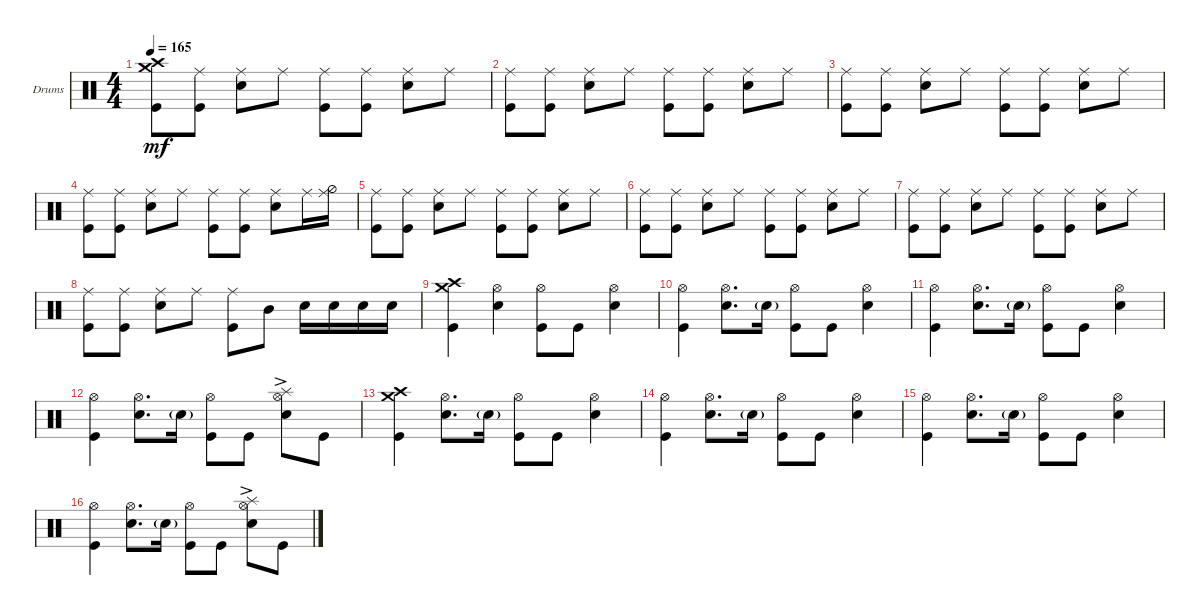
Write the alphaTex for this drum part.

\defaultSystemsLayout 4
\bracketExtendMode groupsimilarinstruments
\firstSystemTrackNameOrientation horizontal
\otherSystemsTrackNameOrientation horizontal
\track ("Drumkit" "Drums") {instrument percussion}
\staff {score}
\articulation defaults
\ts (4 4)
\tempo 165
\clef neutral
\ks c
("Kick (hit)" "Crash high (hit)" "Crash medium (hit)").8{dy mf} ("Kick (hit)" "Ride (middle)").8 ("Snare (hit) 2" "Ride (middle)").8 "Ride (middle)".8 ("Ride (middle)" "Kick (hit)").8 ("Ride (middle)" "Kick (hit)").8 ("Ride (middle)" "Snare (hit) 2").8 "Ride (middle)".8 |
("Ride (middle)" "Kick (hit)").8 ("Ride (middle)" "Kick (hit)").8 ("Ride (middle)" "Snare (hit) 2").8 "Ride (middle)".8 ("Ride (middle)" "Kick (hit)").8 ("Ride (middle)" "Kick (hit)").8 ("Ride (middle)" "Snare (hit) 2").8 "Ride (middle)".8 |
("Ride (middle)" "Kick (hit)").8 ("Ride (middle)" "Kick (hit)").8 ("Ride (middle)" "Snare (hit) 2").8 "Ride (middle)".8 ("Ride (middle)" "Kick (hit)").8 ("Ride (middle)" "Kick (hit)").8 ("Ride (middle)" "Snare (hit) 2").8 "Ride (middle)".8 |
("Ride (middle)" "Kick (hit)").8 ("Ride (middle)" "Kick (hit)").8 ("Ride (middle)" "Snare (hit) 2").8 "Ride (middle)".8 ("Ride (middle)" "Kick (hit)").8 ("Ride (middle)" "Kick (hit)").8 ("Ride (middle)" "Snare (hit) 2").8 "Ride (middle)".16 ("Ride (middle)" "Hi-Hat (half)").16 |
("Ride (middle)" "Kick (hit)").8 ("Ride (middle)" "Kick (hit)").8 ("Ride (middle)" "Snare (hit) 2").8 "Ride (middle)".8 ("Ride (middle)" "Kick (hit)").8 ("Ride (middle)" "Kick (hit)").8 ("Ride (middle)" "Snare (hit) 2").8 "Ride (middle)".8 |
("Ride (middle)" "Kick (hit)").8 ("Ride (middle)" "Kick (hit)").8 ("Ride (middle)" "Snare (hit) 2").8 "Ride (middle)".8 ("Ride (middle)" "Kick (hit)").8 ("Ride (middle)" "Kick (hit)").8 ("Ride (middle)" "Snare (hit) 2").8 "Ride (middle)".8 |
("Ride (middle)" "Kick (hit)").8 ("Ride (middle)" "Kick (hit)").8 ("Ride (middle)" "Snare (hit) 2").8 "Ride (middle)".8 ("Ride (middle)" "Kick (hit)").8 ("Ride (middle)" "Kick (hit)").8 ("Ride (middle)" "Snare (hit) 2").8 "Ride (middle)".8 |
("Ride (middle)" "Kick (hit)").8 ("Ride (middle)" "Kick (hit)").8 ("Ride (middle)" "Snare (hit) 2").8 "Ride (middle)".8 ("Ride (middle)" "Kick (hit)").8 "Mid Tom (hit)".8 "Snare (hit) 2".16 "Snare (hit) 2".16 "Snare (hit) 2".16 "Snare (hit) 2".16 |
("Kick (hit)" "Crash high (hit)" "Crash medium (hit)").4 ("Snare (hit) 2" "Hi-Hat (open)").4 ("Kick (hit)" "Hi-Hat (open)").8 "Kick (hit)".8 ("Snare (hit) 2" "Hi-Hat (open)").4 |
("Kick (hit)" "Hi-Hat (open)").4 ("Snare (hit) 2" "Hi-Hat (open)").8{d} "Snare (hit) 2"{g}.16 ("Kick (hit)" "Hi-Hat (open)").8 "Kick (hit)".8 ("Snare (hit) 2" "Hi-Hat (open)").4 |
("Kick (hit)" "Hi-Hat (open)").4 ("Snare (hit) 2" "Hi-Hat (open)").8{d} "Snare (hit) 2"{g}.16 ("Kick (hit)" "Hi-Hat (open)").8 "Kick (hit)".8 ("Snare (hit) 2" "Hi-Hat (open)").4 |
("Kick (hit)" "Hi-Hat (open)").4 ("Snare (hit) 2" "Hi-Hat (open)").8{d} "Snare (hit) 2"{g}.16 ("Kick (hit)" "Hi-Hat (open)").8 "Kick (hit)".8 ("Snare (hit) 2" "Hi-Hat (open)"{ac} "Splash (hit)").8 "Kick (hit)".8 |
("Kick (hit)" "Crash high (hit)" "Crash medium (hit)").4 ("Snare (hit) 2" "Hi-Hat (open)").8{d} "Snare (hit) 2"{g}.16 ("Kick (hit)" "Hi-Hat (open)").8 "Kick (hit)".8 ("Snare (hit) 2" "Hi-Hat (open)").4 |
("Kick (hit)" "Hi-Hat (open)").4 ("Snare (hit) 2" "Hi-Hat (open)").8{d} "Snare (hit) 2"{g}.16 ("Kick (hit)" "Hi-Hat (open)").8 "Kick (hit)".8 ("Snare (hit) 2" "Hi-Hat (open)").4 |
("Kick (hit)" "Hi-Hat (open)").4 ("Snare (hit) 2" "Hi-Hat (open)").8{d} "Snare (hit) 2"{g}.16 ("Kick (hit)" "Hi-Hat (open)").8 "Kick (hit)".8 ("Snare (hit) 2" "Hi-Hat (open)").4 |
("Kick (hit)" "Hi-Hat (open)").4 ("Snare (hit) 2" "Hi-Hat (open)").8{d} "Snare (hit) 2"{g}.16 ("Kick (hit)" "Hi-Hat (open)").8 "Kick (hit)".8 ("Snare (hit) 2" "Hi-Hat (open)"{ac} "Splash (hit)").8 "Kick (hit)".8
